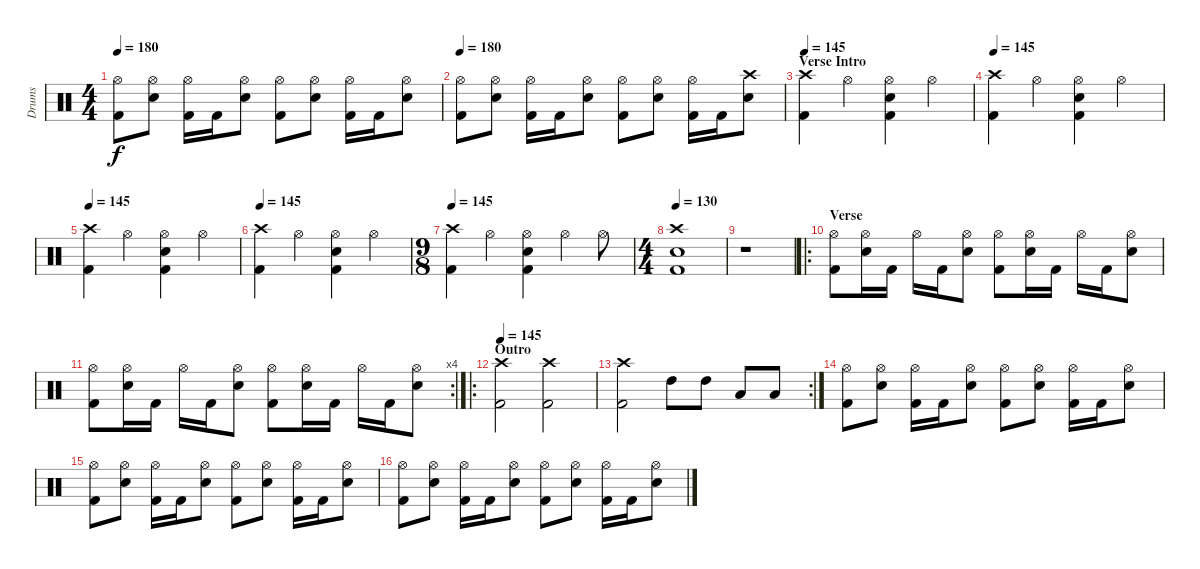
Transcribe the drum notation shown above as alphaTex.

\track ("Drums" "Drums") {instrument percussion}
\staff {score}
\articulation defaults
\ts (4 4)
\tempo 180
\clef neutral
\ks c
("Hi-Hat (open)" "Kick (hit) 2").8{dy f} ("Hi-Hat (open)" "Electric Snare (hit)").8 ("Hi-Hat (open)" "Kick (hit) 2").16 "Kick (hit) 2".16 ("Hi-Hat (open)" "Electric Snare (hit)").8 ("Hi-Hat (open)" "Kick (hit) 2").8 ("Hi-Hat (open)" "Electric Snare (hit)").8 ("Hi-Hat (open)" "Kick (hit) 2").16 "Kick (hit) 2".16 ("Hi-Hat (open)" "Electric Snare (hit)").8 |
\tempo 180
("Hi-Hat (open)" "Kick (hit) 2").8 ("Hi-Hat (open)" "Electric Snare (hit)").8 ("Hi-Hat (open)" "Kick (hit) 2").16 "Kick (hit) 2".16 ("Hi-Hat (open)" "Electric Snare (hit)").8 ("Hi-Hat (open)" "Kick (hit) 2").8 ("Hi-Hat (open)" "Electric Snare (hit)").8 ("Hi-Hat (open)" "Kick (hit) 2").16 "Kick (hit) 2".16 ("Crash high (hit)" "Electric Snare (hit)").8 |
\section ("" "Verse Intro")
\tempo 145
("Crash high (hit)" "Kick (hit) 2").4 "Hi-Hat (open)".4 ("Hi-Hat (open)" "Electric Snare (hit)" "Kick (hit) 2").4 "Hi-Hat (open)".4 |
\tempo 145
("Crash high (hit)" "Kick (hit) 2").4 "Hi-Hat (open)".4 ("Hi-Hat (open)" "Electric Snare (hit)" "Kick (hit) 2").4 "Hi-Hat (open)".4 |
\tempo 145
("Crash high (hit)" "Kick (hit) 2").4 "Hi-Hat (open)".4 ("Hi-Hat (open)" "Electric Snare (hit)" "Kick (hit) 2").4 "Hi-Hat (open)".4 |
\tempo 145
("Crash high (hit)" "Kick (hit) 2").4 "Hi-Hat (open)".4 ("Hi-Hat (open)" "Electric Snare (hit)" "Kick (hit) 2").4 "Hi-Hat (open)".4 |
\ts (9 8)
\tempo 145
("Crash high (hit)" "Kick (hit) 2").4 "Hi-Hat (open)".4 ("Hi-Hat (open)" "Electric Snare (hit)" "Kick (hit) 2").4 "Hi-Hat (open)".4 "Hi-Hat (open)".8 |
\ts (4 4)
\tempo 130
("Crash high (hit)" "Electric Snare (hit)" "Kick (hit) 2").1 |
r.1 |
\ro
\section ("" "Verse")
("Hi-Hat (open)" "Kick (hit) 2").8 ("Hi-Hat (open)" "Electric Snare (hit)").16 "Kick (hit) 2".16 "Hi-Hat (open)".16 "Kick (hit) 2".16 ("Hi-Hat (open)" "Electric Snare (hit)").8 ("Hi-Hat (open)" "Kick (hit) 2").8 ("Hi-Hat (open)" "Electric Snare (hit)").16 "Kick (hit) 2".16 "Hi-Hat (open)".16 "Kick (hit) 2".16 ("Hi-Hat (open)" "Electric Snare (hit)").8 |
\rc 4
("Hi-Hat (open)" "Kick (hit) 2").8 ("Hi-Hat (open)" "Electric Snare (hit)").16 "Kick (hit) 2".16 "Hi-Hat (open)".16 "Kick (hit) 2".16 ("Hi-Hat (open)" "Electric Snare (hit)").8 ("Hi-Hat (open)" "Kick (hit) 2").8 ("Hi-Hat (open)" "Electric Snare (hit)").16 "Kick (hit) 2".16 "Hi-Hat (open)".16 "Kick (hit) 2".16 ("Hi-Hat (open)" "Electric Snare (hit)").8 |
\ro
\section ("" "Outro")
\tempo 145
("Crash high (hit)" "Kick (hit) 2").2 ("Crash high (hit)" "Kick (hit) 2").2 |
\rc 2
("Crash high (hit)" "Kick (hit) 2").2 "High Tom (hit)".8 "High Tom (hit)".8 "Low Tom (hit)".8 "Low Tom (hit)".8 |
("Hi-Hat (open)" "Kick (hit) 2").8 ("Hi-Hat (open)" "Electric Snare (hit)").8 ("Hi-Hat (open)" "Kick (hit) 2").16 "Kick (hit) 2".16 ("Hi-Hat (open)" "Electric Snare (hit)").8 ("Hi-Hat (open)" "Kick (hit) 2").8 ("Hi-Hat (open)" "Electric Snare (hit)").8 ("Hi-Hat (open)" "Kick (hit) 2").16 "Kick (hit) 2".16 ("Hi-Hat (open)" "Electric Snare (hit)").8 |
("Hi-Hat (open)" "Kick (hit) 2").8 ("Hi-Hat (open)" "Electric Snare (hit)").8 ("Hi-Hat (open)" "Kick (hit) 2").16 "Kick (hit) 2".16 ("Hi-Hat (open)" "Electric Snare (hit)").8 ("Hi-Hat (open)" "Kick (hit) 2").8 ("Hi-Hat (open)" "Electric Snare (hit)").8 ("Hi-Hat (open)" "Kick (hit) 2").16 "Kick (hit) 2".16 ("Hi-Hat (open)" "Electric Snare (hit)").8 |
("Hi-Hat (open)" "Kick (hit) 2").8 ("Hi-Hat (open)" "Electric Snare (hit)").8 ("Hi-Hat (open)" "Kick (hit) 2").16 "Kick (hit) 2".16 ("Hi-Hat (open)" "Electric Snare (hit)").8 ("Hi-Hat (open)" "Kick (hit) 2").8 ("Hi-Hat (open)" "Electric Snare (hit)").8 ("Hi-Hat (open)" "Kick (hit) 2").16 "Kick (hit) 2".16 ("Hi-Hat (open)" "Electric Snare (hit)").8
